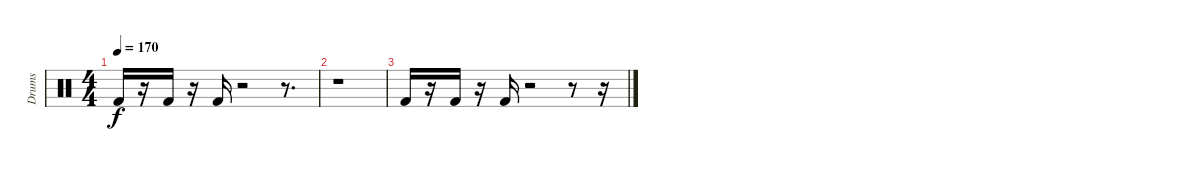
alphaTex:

\track ("Drums               " "Drums     ") {instrument percussion}
\staff {score}
\articulation defaults
\ts (4 4)
\tempo 170
\clef neutral
\ks c "Kick (hit) 2".16{dy f}
r.16 "Kick (hit) 2".16 r.16 "Kick (hit) 2".16 r.2 r.8{d} |
r.1 |
"Kick (hit) 2".16 r.16 "Kick (hit) 2".16 r.16 "Kick (hit) 2".16 r.2 r.8 r.16
